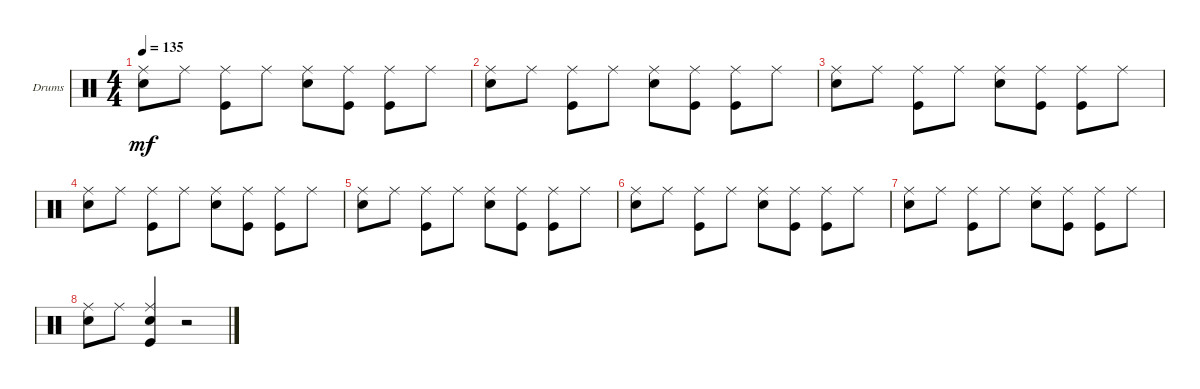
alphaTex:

\bracketExtendMode groupsimilarinstruments
\firstSystemTrackNameOrientation horizontal
\otherSystemsTrackNameOrientation horizontal
\track ("Drumkit" "Drums") {instrument percussion}
\staff {score}
\articulation defaults
\ts (4 4)
\tempo 135
\clef neutral
\ks c
("Snare (hit) 2" "Ride (middle)").8{dy mf} "Ride (middle)".8 ("Kick (hit)" "Ride (middle)").8 "Ride (middle)".8 ("Snare (hit) 2" "Ride (middle)").8 ("Kick (hit)" "Ride (middle)").8 ("Kick (hit)" "Ride (middle)").8 "Ride (middle)".8 |
("Snare (hit) 2" "Ride (middle)").8 "Ride (middle)".8 ("Kick (hit)" "Ride (middle)").8 "Ride (middle)".8 ("Snare (hit) 2" "Ride (middle)").8 ("Kick (hit)" "Ride (middle)").8 ("Kick (hit)" "Ride (middle)").8 "Ride (middle)".8 |
("Snare (hit) 2" "Ride (middle)").8 "Ride (middle)".8 ("Kick (hit)" "Ride (middle)").8 "Ride (middle)".8 ("Snare (hit) 2" "Ride (middle)").8 ("Kick (hit)" "Ride (middle)").8 ("Kick (hit)" "Ride (middle)").8 "Ride (middle)".8 |
("Snare (hit) 2" "Ride (middle)").8 "Ride (middle)".8 ("Kick (hit)" "Ride (middle)").8 "Ride (middle)".8 ("Snare (hit) 2" "Ride (middle)").8 ("Kick (hit)" "Ride (middle)").8 ("Kick (hit)" "Ride (middle)").8 "Ride (middle)".8 |
("Snare (hit) 2" "Ride (middle)").8 "Ride (middle)".8 ("Kick (hit)" "Ride (middle)").8 "Ride (middle)".8 ("Snare (hit) 2" "Ride (middle)").8 ("Kick (hit)" "Ride (middle)").8 ("Kick (hit)" "Ride (middle)").8 "Ride (middle)".8 |
("Snare (hit) 2" "Ride (middle)").8 "Ride (middle)".8 ("Kick (hit)" "Ride (middle)").8 "Ride (middle)".8 ("Snare (hit) 2" "Ride (middle)").8 ("Kick (hit)" "Ride (middle)").8 ("Kick (hit)" "Ride (middle)").8 "Ride (middle)".8 |
("Snare (hit) 2" "Ride (middle)").8 "Ride (middle)".8 ("Kick (hit)" "Ride (middle)").8 "Ride (middle)".8 ("Snare (hit) 2" "Ride (middle)").8 ("Kick (hit)" "Ride (middle)").8 ("Kick (hit)" "Ride (middle)").8 "Ride (middle)".8 |
("Snare (hit) 2" "Ride (middle)").8 "Ride (middle)".8 ("Kick (hit)" "Ride (middle)" "Snare (hit) 2").4 r.2
